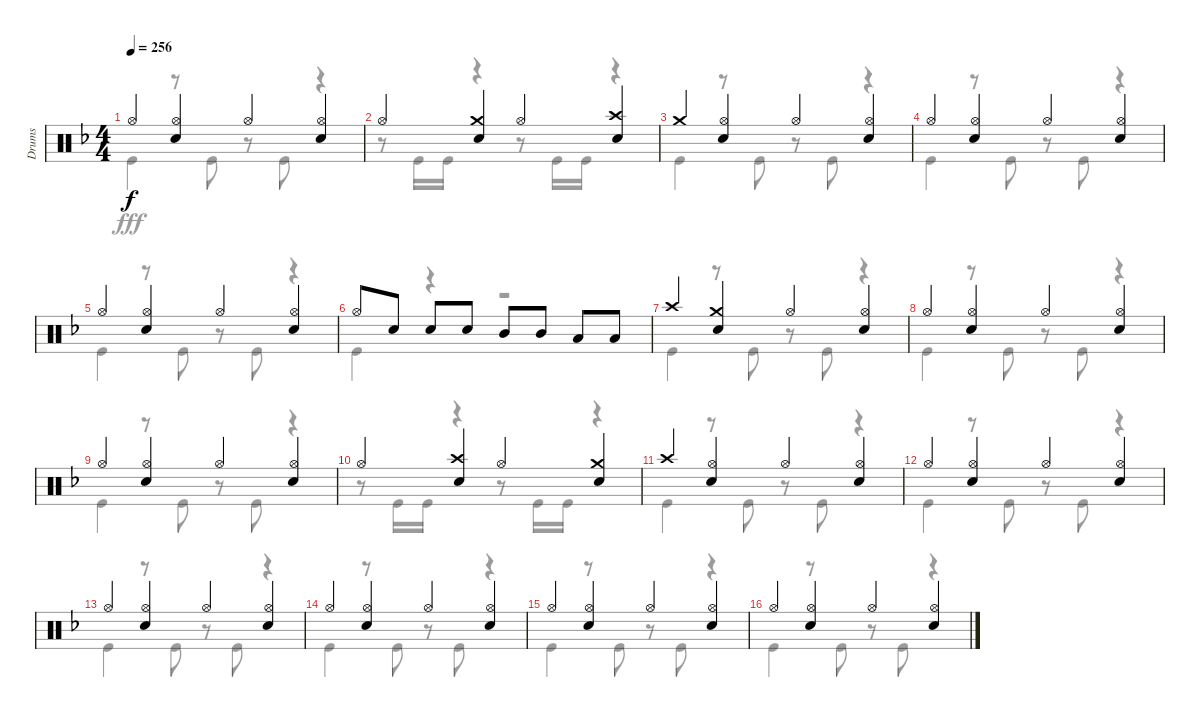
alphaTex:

\track ("Drums" "Drums") {instrument percussion}
\staff {score}
\articulation defaults
\voice
\ts (4 4)
\tempo 256
\clef neutral
\ks f "Hi-Hat (open)".4{dy f}
("Hi-Hat (open)" "Snare (hit) 2").4 "Hi-Hat (open)".4 ("Hi-Hat (open)" "Snare (hit) 2").4 |
"Hi-Hat (open)".4 ("Crash medium (hit)" "Snare (hit) 2").4 "Hi-Hat (open)".4 ("Crash high (hit)" "Snare (hit) 2").4 |
"Crash medium (hit)".4 ("Hi-Hat (open)" "Snare (hit) 2").4 "Hi-Hat (open)".4 ("Hi-Hat (open)" "Snare (hit) 2").4 |
"Hi-Hat (open)".4 ("Hi-Hat (open)" "Snare (hit) 2").4 "Hi-Hat (open)".4 ("Hi-Hat (open)" "Snare (hit) 2").4 |
"Hi-Hat (open)".4 ("Hi-Hat (open)" "Snare (hit) 2").4 "Hi-Hat (open)".4 ("Hi-Hat (open)" "Snare (hit) 2").4 |
"Hi-Hat (open)".8 "Snare (hit) 2".8 "Snare (hit) 2".8 "Snare (hit) 2".8 "Mid Tom (hit)".8 "Mid Tom (hit)".8 "Low Tom (hit)".8 "Low Tom (hit)".8 |
"Crash high (hit)".4 ("Crash medium (hit)" "Snare (hit) 2").4 "Hi-Hat (open)".4 ("Hi-Hat (open)" "Snare (hit) 2").4 |
"Hi-Hat (open)".4 ("Hi-Hat (open)" "Snare (hit) 2").4 "Hi-Hat (open)".4 ("Hi-Hat (open)" "Snare (hit) 2").4 |
"Hi-Hat (open)".4 ("Hi-Hat (open)" "Snare (hit) 2").4 "Hi-Hat (open)".4 ("Hi-Hat (open)" "Snare (hit) 2").4 |
"Hi-Hat (open)".4 ("Crash high (hit)" "Snare (hit) 2").4 "Hi-Hat (open)".4 ("Crash medium (hit)" "Snare (hit) 2").4 |
"Crash high (hit)".4 ("Hi-Hat (open)" "Snare (hit) 2").4 "Hi-Hat (open)".4 ("Hi-Hat (open)" "Snare (hit) 2").4 |
"Hi-Hat (open)".4 ("Hi-Hat (open)" "Snare (hit) 2").4 "Hi-Hat (open)".4 ("Hi-Hat (open)" "Snare (hit) 2").4 |
"Hi-Hat (open)".4 ("Hi-Hat (open)" "Snare (hit) 2").4 "Hi-Hat (open)".4 ("Hi-Hat (open)" "Snare (hit) 2").4 |
"Hi-Hat (open)".4 ("Hi-Hat (open)" "Snare (hit) 2").4 "Hi-Hat (open)".4 ("Hi-Hat (open)" "Snare (hit) 2").4 |
"Hi-Hat (open)".4 ("Hi-Hat (open)" "Snare (hit) 2").4 "Hi-Hat (open)".4 ("Hi-Hat (open)" "Snare (hit) 2").4 |
"Hi-Hat (open)".4 ("Hi-Hat (open)" "Snare (hit) 2").4 "Hi-Hat (open)".4 ("Hi-Hat (open)" "Snare (hit) 2").4
\voice
\clef neutral
\ottava regular
\simile none
\ks f "Kick (hit)".4{dy fff}
r.8 "Kick (hit)".8 r.8 "Kick (hit)".8 r.4 |
r.8 "Kick (hit)".16 "Kick (hit)".16 r.4 r.8 "Kick (hit)".16 "Kick (hit)".16 r.4 |
"Kick (hit)".4 r.8 "Kick (hit)".8 r.8 "Kick (hit)".8 r.4 |
"Kick (hit)".4 r.8 "Kick (hit)".8 r.8 "Kick (hit)".8 r.4 |
"Kick (hit)".4 r.8 "Kick (hit)".8 r.8 "Kick (hit)".8 r.4 |
"Kick (hit)".4 r.4 r.2 |
"Kick (hit)".4 r.8 "Kick (hit)".8 r.8 "Kick (hit)".8 r.4 |
"Kick (hit)".4 r.8 "Kick (hit)".8 r.8 "Kick (hit)".8 r.4 |
"Kick (hit)".4 r.8 "Kick (hit)".8 r.8 "Kick (hit)".8 r.4 |
r.8 "Kick (hit)".16 "Kick (hit)".16 r.4 r.8 "Kick (hit)".16 "Kick (hit)".16 r.4 |
"Kick (hit)".4 r.8 "Kick (hit)".8 r.8 "Kick (hit)".8 r.4 |
"Kick (hit)".4 r.8 "Kick (hit)".8 r.8 "Kick (hit)".8 r.4 |
"Kick (hit)".4 r.8 "Kick (hit)".8 r.8 "Kick (hit)".8 r.4 |
"Kick (hit)".4 r.8 "Kick (hit)".8 r.8 "Kick (hit)".8 r.4 |
"Kick (hit)".4 r.8 "Kick (hit)".8 r.8 "Kick (hit)".8 r.4 |
"Kick (hit)".4 r.8 "Kick (hit)".8 r.8 "Kick (hit)".8 r.4
